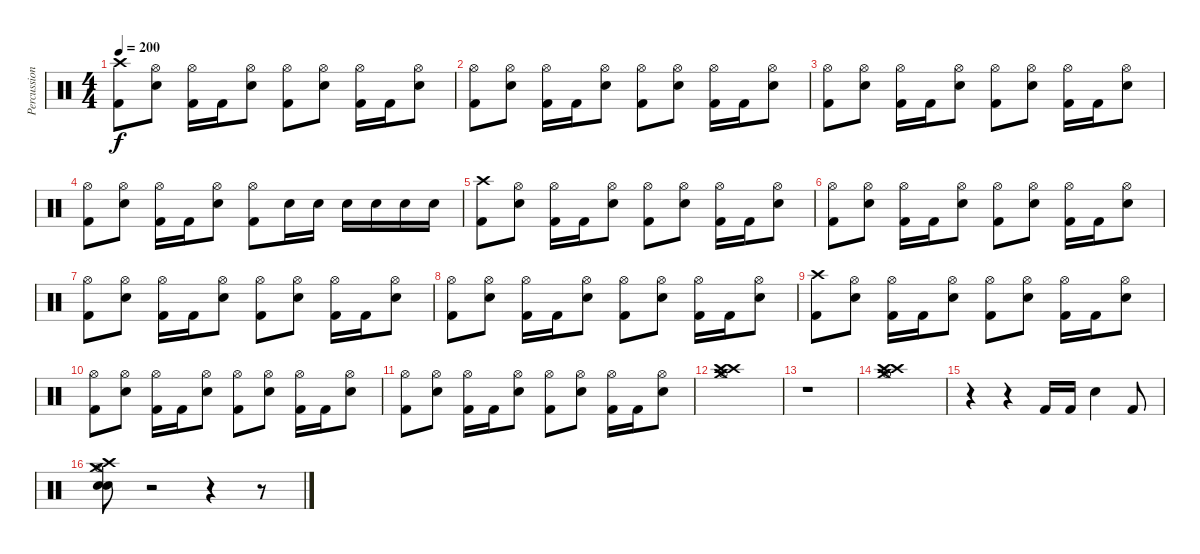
\track ("Percussions" "Percussion") {instrument percussion}
\staff {score}
\articulation defaults
\ts (4 4)
\tempo 200
\clef neutral
\ks c
("Crash high (hit)" "Kick (hit) 2").8{dy f} ("Hi-Hat (open)" "Electric Snare (hit)").8 ("Hi-Hat (open)" "Kick (hit) 2").16 "Kick (hit) 2".16 ("Hi-Hat (open)" "Electric Snare (hit)").8 ("Hi-Hat (open)" "Kick (hit) 2").8 ("Hi-Hat (open)" "Electric Snare (hit)").8 ("Hi-Hat (open)" "Kick (hit) 2").16 "Kick (hit) 2".16 ("Hi-Hat (open)" "Electric Snare (hit)").8 |
("Hi-Hat (open)" "Kick (hit) 2").8 ("Hi-Hat (open)" "Electric Snare (hit)").8 ("Hi-Hat (open)" "Kick (hit) 2").16 "Kick (hit) 2".16 ("Hi-Hat (open)" "Electric Snare (hit)").8 ("Hi-Hat (open)" "Kick (hit) 2").8 ("Hi-Hat (open)" "Electric Snare (hit)").8 ("Hi-Hat (open)" "Kick (hit) 2").16 "Kick (hit) 2".16 ("Hi-Hat (open)" "Electric Snare (hit)").8 |
("Hi-Hat (open)" "Kick (hit) 2").8 ("Hi-Hat (open)" "Electric Snare (hit)").8 ("Hi-Hat (open)" "Kick (hit) 2").16 "Kick (hit) 2".16 ("Hi-Hat (open)" "Electric Snare (hit)").8 ("Hi-Hat (open)" "Kick (hit) 2").8 ("Hi-Hat (open)" "Electric Snare (hit)").8 ("Hi-Hat (open)" "Kick (hit) 2").16 "Kick (hit) 2".16 ("Hi-Hat (open)" "Electric Snare (hit)").8 |
("Hi-Hat (open)" "Kick (hit) 2").8 ("Hi-Hat (open)" "Electric Snare (hit)").8 ("Hi-Hat (open)" "Kick (hit) 2").16 "Kick (hit) 2".16 ("Hi-Hat (open)" "Electric Snare (hit)").8 ("Hi-Hat (open)" "Kick (hit) 2").8 "Electric Snare (hit)".16 "Electric Snare (hit)".16 "Electric Snare (hit)".16 "Electric Snare (hit)".16 "Electric Snare (hit)".16 "Electric Snare (hit)".16 |
("Crash high (hit)" "Kick (hit) 2").8 ("Hi-Hat (open)" "Electric Snare (hit)").8 ("Hi-Hat (open)" "Kick (hit) 2").16 "Kick (hit) 2".16 ("Hi-Hat (open)" "Electric Snare (hit)").8 ("Hi-Hat (open)" "Kick (hit) 2").8 ("Hi-Hat (open)" "Electric Snare (hit)").8 ("Hi-Hat (open)" "Kick (hit) 2").16 "Kick (hit) 2".16 ("Hi-Hat (open)" "Electric Snare (hit)").8 |
("Hi-Hat (open)" "Kick (hit) 2").8 ("Hi-Hat (open)" "Electric Snare (hit)").8 ("Hi-Hat (open)" "Kick (hit) 2").16 "Kick (hit) 2".16 ("Hi-Hat (open)" "Electric Snare (hit)").8 ("Hi-Hat (open)" "Kick (hit) 2").8 ("Hi-Hat (open)" "Electric Snare (hit)").8 ("Hi-Hat (open)" "Kick (hit) 2").16 "Kick (hit) 2".16 ("Hi-Hat (open)" "Electric Snare (hit)").8 |
("Hi-Hat (open)" "Kick (hit) 2").8 ("Hi-Hat (open)" "Electric Snare (hit)").8 ("Hi-Hat (open)" "Kick (hit) 2").16 "Kick (hit) 2".16 ("Hi-Hat (open)" "Electric Snare (hit)").8 ("Hi-Hat (open)" "Kick (hit) 2").8 ("Hi-Hat (open)" "Electric Snare (hit)").8 ("Hi-Hat (open)" "Kick (hit) 2").16 "Kick (hit) 2".16 ("Hi-Hat (open)" "Electric Snare (hit)").8 |
("Hi-Hat (open)" "Kick (hit) 2").8 ("Hi-Hat (open)" "Electric Snare (hit)").8 ("Hi-Hat (open)" "Kick (hit) 2").16 "Kick (hit) 2".16 ("Hi-Hat (open)" "Electric Snare (hit)").8 ("Hi-Hat (open)" "Kick (hit) 2").8 ("Hi-Hat (open)" "Electric Snare (hit)").8 ("Hi-Hat (open)" "Kick (hit) 2").16 "Kick (hit) 2".16 ("Hi-Hat (open)" "Electric Snare (hit)").8 |
("Crash high (hit)" "Kick (hit) 2").8 ("Hi-Hat (open)" "Electric Snare (hit)").8 ("Hi-Hat (open)" "Kick (hit) 2").16 "Kick (hit) 2".16 ("Hi-Hat (open)" "Electric Snare (hit)").8 ("Hi-Hat (open)" "Kick (hit) 2").8 ("Hi-Hat (open)" "Electric Snare (hit)").8 ("Hi-Hat (open)" "Kick (hit) 2").16 "Kick (hit) 2".16 ("Hi-Hat (open)" "Electric Snare (hit)").8 |
("Hi-Hat (open)" "Kick (hit) 2").8 ("Hi-Hat (open)" "Electric Snare (hit)").8 ("Hi-Hat (open)" "Kick (hit) 2").16 "Kick (hit) 2".16 ("Hi-Hat (open)" "Electric Snare (hit)").8 ("Hi-Hat (open)" "Kick (hit) 2").8 ("Hi-Hat (open)" "Electric Snare (hit)").8 ("Hi-Hat (open)" "Kick (hit) 2").16 "Kick (hit) 2".16 ("Hi-Hat (open)" "Electric Snare (hit)").8 |
("Hi-Hat (open)" "Kick (hit) 2").8 ("Hi-Hat (open)" "Electric Snare (hit)").8 ("Hi-Hat (open)" "Kick (hit) 2").16 "Kick (hit) 2".16 ("Hi-Hat (open)" "Electric Snare (hit)").8 ("Hi-Hat (open)" "Kick (hit) 2").8 ("Hi-Hat (open)" "Electric Snare (hit)").8 ("Hi-Hat (open)" "Kick (hit) 2").16 "Kick (hit) 2".16 ("Hi-Hat (open)" "Electric Snare (hit)").8 |
("Crash high (hit)" "Crash high (hit)" "Hi-Hat (open)" "Crash medium (hit)").1 |
r.1 |
("Crash high (hit)" "Crash high (hit)" "Hi-Hat (open)" "Crash medium (hit)").1 |
r.4 r.4 "Kick (hit) 2".16 "Kick (hit) 2".16 "Electric Snare (hit)".4 "Kick (hit) 2".8 |
("Crash medium (hit)" "Crash high (hit)" "Electric Snare (hit)" "Electric Snare (hit)" "Hi-Hat (open)").8 r.2 r.4 r.8
